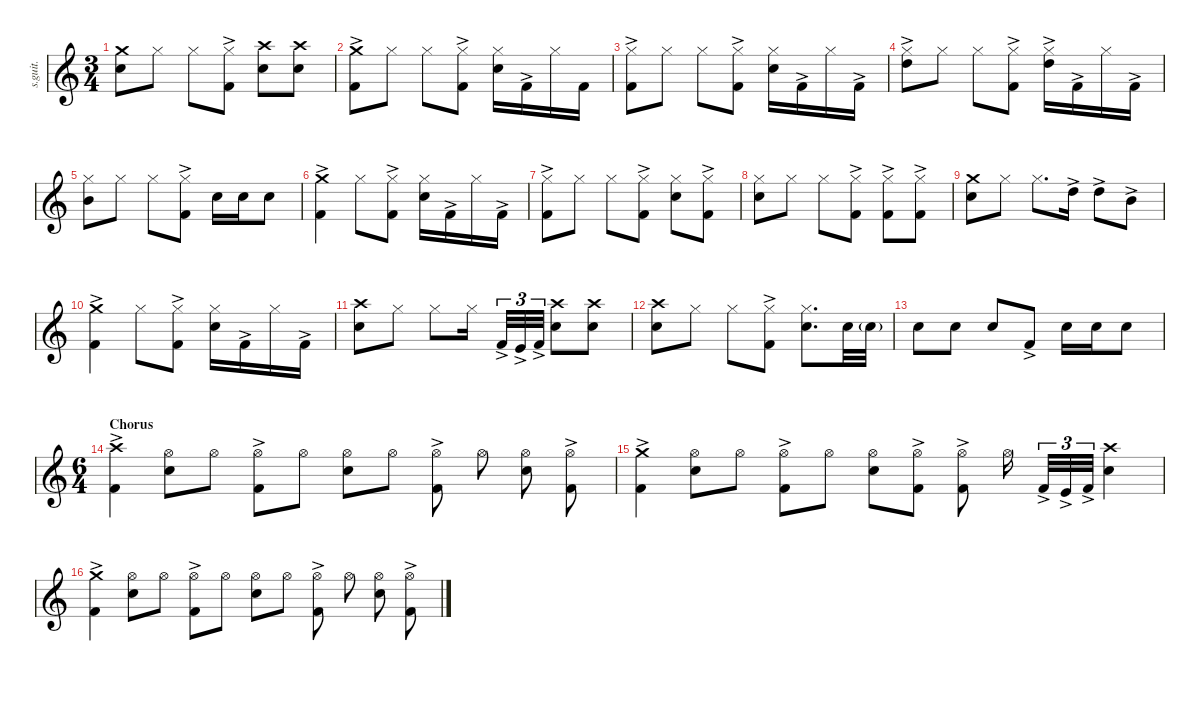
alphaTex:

\defaultSystemsLayout 4
\hideDynamics
\bracketExtendMode nobrackets
\track ("Lars Ulrich - Drums" "s.guit.") {instrument percussion}
\staff {score}
\articulation defaults
\ts (3 4)
\tempo (103 hide)
\clef g2
\ks c
("Crash medium (hit)" "Snare (hit) 2").8{lyrics (0 "") lyrics (1 "") lyrics (2 "") lyrics (3 "") lyrics (4 "") dy f} "Hi-Hat (closed)".8{lyrics (0 "") lyrics (1 "") lyrics (2 "") lyrics (3 "") lyrics (4 "")} "Hi-Hat (closed)".8{lyrics (0 "") lyrics (1 "") lyrics (2 "") lyrics (3 "") lyrics (4 "")} ("Hi-Hat (closed)" "Kick (hit) 2"{ac}).8{lyrics (0 "") lyrics (1 "") lyrics (2 "") lyrics (3 "") lyrics (4 "")} ("Crash high (hit)" "Snare (hit) 2").8{lyrics (0 "") lyrics (1 "") lyrics (2 "") lyrics (3 "") lyrics (4 "")} ("Snare (hit) 2" "Crash high (hit)").8{lyrics (0 "") lyrics (1 "") lyrics (2 "") lyrics (3 "") lyrics (4 "")} |
("Kick (hit) 2"{ac} "Crash medium (hit)").8{lyrics (0 "") lyrics (1 "") lyrics (2 "") lyrics (3 "") lyrics (4 "")} "Hi-Hat (closed)".8{lyrics (0 "") lyrics (1 "") lyrics (2 "") lyrics (3 "") lyrics (4 "")} "Hi-Hat (closed)".8{lyrics (0 "") lyrics (1 "") lyrics (2 "") lyrics (3 "") lyrics (4 "")} ("Hi-Hat (closed)" "Kick (hit) 2"{ac}).8{lyrics (0 "") lyrics (1 "") lyrics (2 "") lyrics (3 "") lyrics (4 "")} ("Hi-Hat (closed)" "Snare (hit) 2").16{lyrics (0 "") lyrics (1 "") lyrics (2 "") lyrics (3 "") lyrics (4 "")} "Kick (hit) 2"{ac}.16{lyrics (0 "") lyrics (1 "") lyrics (2 "") lyrics (3 "") lyrics (4 "") dy mp} "Hi-Hat (closed)".16{lyrics (0 "") lyrics (1 "") lyrics (2 "") lyrics (3 "") lyrics (4 "") dy f} "Kick (hit) 2".16{lyrics (0 "") lyrics (1 "") lyrics (2 "") lyrics (3 "") lyrics (4 "")} |
("Hi-Hat (closed)" "Kick (hit) 2"{ac}).8{lyrics (0 "") lyrics (1 "") lyrics (2 "") lyrics (3 "") lyrics (4 "")} "Hi-Hat (closed)".8{lyrics (0 "") lyrics (1 "") lyrics (2 "") lyrics (3 "") lyrics (4 "")} "Hi-Hat (closed)".8{lyrics (0 "") lyrics (1 "") lyrics (2 "") lyrics (3 "") lyrics (4 "")} ("Hi-Hat (closed)" "Kick (hit) 2"{ac}).8{lyrics (0 "") lyrics (1 "") lyrics (2 "") lyrics (3 "") lyrics (4 "")} ("Hi-Hat (closed)" "Snare (hit) 2").16{lyrics (0 "") lyrics (1 "") lyrics (2 "") lyrics (3 "") lyrics (4 "")} "Kick (hit) 2"{ac}.16{lyrics (0 "") lyrics (1 "") lyrics (2 "") lyrics (3 "") lyrics (4 "") dy mp} "Hi-Hat (closed)".16{lyrics (0 "") lyrics (1 "") lyrics (2 "") lyrics (3 "") lyrics (4 "") dy f} "Kick (hit) 2"{ac}.16{lyrics (0 "") lyrics (1 "") lyrics (2 "") lyrics (3 "") lyrics (4 "") dy mp} |
("High Tom (hit)"{ac} "Hi-Hat (closed)").8{lyrics (0 "") lyrics (1 "") lyrics (2 "") lyrics (3 "") lyrics (4 "") dy f} "Hi-Hat (closed)".8{lyrics (0 "") lyrics (1 "") lyrics (2 "") lyrics (3 "") lyrics (4 "")} "Hi-Hat (closed)".8{lyrics (0 "") lyrics (1 "") lyrics (2 "") lyrics (3 "") lyrics (4 "")} ("Hi-Hat (closed)" "Kick (hit) 2"{ac}).8{lyrics (0 "") lyrics (1 "") lyrics (2 "") lyrics (3 "") lyrics (4 "")} ("High Tom (hit)"{ac} "Hi-Hat (closed)").16{lyrics (0 "") lyrics (1 "") lyrics (2 "") lyrics (3 "") lyrics (4 "")} "Kick (hit) 2"{ac}.16{lyrics (0 "") lyrics (1 "") lyrics (2 "") lyrics (3 "") lyrics (4 "") dy mp} "Hi-Hat (closed)".16{lyrics (0 "") lyrics (1 "") lyrics (2 "") lyrics (3 "") lyrics (4 "") dy f} "Kick (hit) 2"{ac}.16{lyrics (0 "") lyrics (1 "") lyrics (2 "") lyrics (3 "") lyrics (4 "") dy mp} |
("Hi-Hat (closed)" "Mid Tom (hit)").8{lyrics (0 "") lyrics (1 "") lyrics (2 "") lyrics (3 "") lyrics (4 "") dy f} "Hi-Hat (closed)".8{lyrics (0 "") lyrics (1 "") lyrics (2 "") lyrics (3 "") lyrics (4 "")} "Hi-Hat (closed)".8{lyrics (0 "") lyrics (1 "") lyrics (2 "") lyrics (3 "") lyrics (4 "")} ("Hi-Hat (closed)" "Kick (hit) 2"{ac}).8{lyrics (0 "") lyrics (1 "") lyrics (2 "") lyrics (3 "") lyrics (4 "")} "Snare (hit) 2".16{lyrics (0 "") lyrics (1 "") lyrics (2 "") lyrics (3 "") lyrics (4 "")} "Snare (hit) 2".16{lyrics (0 "") lyrics (1 "") lyrics (2 "") lyrics (3 "") lyrics (4 "")} "Snare (hit) 2".8{lyrics (0 "") lyrics (1 "") lyrics (2 "") lyrics (3 "") lyrics (4 "")} |
("Crash medium (hit)" "Kick (hit) 2"{ac}).4{lyrics (0 "") lyrics (1 "") lyrics (2 "") lyrics (3 "") lyrics (4 "")} "Hi-Hat (closed)".8{lyrics (0 "") lyrics (1 "") lyrics (2 "") lyrics (3 "") lyrics (4 "")} ("Hi-Hat (closed)" "Kick (hit) 2"{ac}).8{lyrics (0 "") lyrics (1 "") lyrics (2 "") lyrics (3 "") lyrics (4 "")} ("Hi-Hat (closed)" "Snare (hit) 2").16{lyrics (0 "") lyrics (1 "") lyrics (2 "") lyrics (3 "") lyrics (4 "")} "Kick (hit) 2"{ac}.16{lyrics (0 "") lyrics (1 "") lyrics (2 "") lyrics (3 "") lyrics (4 "") dy mp} "Hi-Hat (closed)".16{lyrics (0 "") lyrics (1 "") lyrics (2 "") lyrics (3 "") lyrics (4 "") dy f} "Kick (hit) 2"{ac}.16{lyrics (0 "") lyrics (1 "") lyrics (2 "") lyrics (3 "") lyrics (4 "") dy mp} |
("Hi-Hat (closed)" "Kick (hit) 2"{ac}).8{lyrics (0 "") lyrics (1 "") lyrics (2 "") lyrics (3 "") lyrics (4 "") dy f} "Hi-Hat (closed)".8{lyrics (0 "") lyrics (1 "") lyrics (2 "") lyrics (3 "") lyrics (4 "")} "Hi-Hat (closed)".8{lyrics (0 "") lyrics (1 "") lyrics (2 "") lyrics (3 "") lyrics (4 "")} ("Hi-Hat (closed)" "Kick (hit) 2"{ac}).8{lyrics (0 "") lyrics (1 "") lyrics (2 "") lyrics (3 "") lyrics (4 "")} ("Hi-Hat (closed)" "Snare (hit) 2").8{lyrics (0 "") lyrics (1 "") lyrics (2 "") lyrics (3 "") lyrics (4 "")} ("Hi-Hat (closed)" "Kick (hit) 2"{ac}).8{lyrics (0 "") lyrics (1 "") lyrics (2 "") lyrics (3 "") lyrics (4 "")} |
("Hi-Hat (closed)" "Snare (hit) 2").8{lyrics (0 "") lyrics (1 "") lyrics (2 "") lyrics (3 "") lyrics (4 "")} "Hi-Hat (closed)".8{lyrics (0 "") lyrics (1 "") lyrics (2 "") lyrics (3 "") lyrics (4 "")} "Hi-Hat (closed)".8{lyrics (0 "") lyrics (1 "") lyrics (2 "") lyrics (3 "") lyrics (4 "")} ("Hi-Hat (closed)" "Kick (hit) 2"{ac}).8{lyrics (0 "") lyrics (1 "") lyrics (2 "") lyrics (3 "") lyrics (4 "")} ("Hi-Hat (closed)" "Kick (hit) 2"{ac}).8{lyrics (0 "") lyrics (1 "") lyrics (2 "") lyrics (3 "") lyrics (4 "")} ("Hi-Hat (closed)" "Kick (hit) 2"{ac}).8{lyrics (0 "") lyrics (1 "") lyrics (2 "") lyrics (3 "") lyrics (4 "")} |
("Crash medium (hit)" "Snare (hit) 2").8{lyrics (0 "") lyrics (1 "") lyrics (2 "") lyrics (3 "") lyrics (4 "")} "Hi-Hat (closed)".8{lyrics (0 "") lyrics (1 "") lyrics (2 "") lyrics (3 "") lyrics (4 "")} "Hi-Hat (closed)".8{d lyrics (0 "") lyrics (1 "") lyrics (2 "") lyrics (3 "") lyrics (4 "")} "High Tom (hit)"{ac}.16{lyrics (0 "") lyrics (1 "") lyrics (2 "") lyrics (3 "") lyrics (4 "") dy mp} "High Tom (hit)"{ac}.8{lyrics (0 "") lyrics (1 "") lyrics (2 "") lyrics (3 "") lyrics (4 "")} "Mid Tom (hit)"{ac}.8{lyrics (0 "") lyrics (1 "") lyrics (2 "") lyrics (3 "") lyrics (4 "")} |
("Crash medium (hit)" "Kick (hit) 2"{ac}).4{lyrics (0 "") lyrics (1 "") lyrics (2 "") lyrics (3 "") lyrics (4 "") dy f} "Hi-Hat (closed)".8{lyrics (0 "") lyrics (1 "") lyrics (2 "") lyrics (3 "") lyrics (4 "")} ("Hi-Hat (closed)" "Kick (hit) 2"{ac}).8{lyrics (0 "") lyrics (1 "") lyrics (2 "") lyrics (3 "") lyrics (4 "")} ("Hi-Hat (closed)" "Snare (hit) 2").16{lyrics (0 "") lyrics (1 "") lyrics (2 "") lyrics (3 "") lyrics (4 "")} "Kick (hit) 2"{ac}.16{lyrics (0 "") lyrics (1 "") lyrics (2 "") lyrics (3 "") lyrics (4 "") dy mp} "Hi-Hat (closed)".16{lyrics (0 "") lyrics (1 "") lyrics (2 "") lyrics (3 "") lyrics (4 "") dy f} "Kick (hit) 2"{ac}.16{lyrics (0 "") lyrics (1 "") lyrics (2 "") lyrics (3 "") lyrics (4 "") dy mp} |
("Crash high (hit)" "Snare (hit) 2").8{lyrics (0 "") lyrics (1 "") lyrics (2 "") lyrics (3 "") lyrics (4 "") dy f} "Hi-Hat (closed)".8{lyrics (0 "") lyrics (1 "") lyrics (2 "") lyrics (3 "") lyrics (4 "")} "Hi-Hat (closed)".8{lyrics (0 "") lyrics (1 "") lyrics (2 "") lyrics (3 "") lyrics (4 "")} "Hi-Hat (closed)".16{lyrics (0 "") lyrics (1 "") lyrics (2 "") lyrics (3 "") lyrics (4 "")} "Kick (hit) 2"{ac}.32{tu (3 2) lyrics (0 "") lyrics (1 "") lyrics (2 "") lyrics (3 "") lyrics (4 "") dy mp} "Kick (hit)"{ac}.32{tu (3 2) lyrics (0 "") lyrics (1 "") lyrics (2 "") lyrics (3 "") lyrics (4 "") dy mf} "Kick (hit) 2"{ac}.32{tu (3 2) lyrics (0 "") lyrics (1 "") lyrics (2 "") lyrics (3 "") lyrics (4 "") dy mp} ("Crash high (hit)" "Snare (hit) 2").8{lyrics (0 "") lyrics (1 "") lyrics (2 "") lyrics (3 "") lyrics (4 "") dy f} ("Snare (hit) 2" "Crash high (hit)").8{lyrics (0 "") lyrics (1 "") lyrics (2 "") lyrics (3 "") lyrics (4 "")} |
("Crash high (hit)" "Snare (hit) 2").8{lyrics (0 "") lyrics (1 "") lyrics (2 "") lyrics (3 "") lyrics (4 "")} "Hi-Hat (closed)".8{lyrics (0 "") lyrics (1 "") lyrics (2 "") lyrics (3 "") lyrics (4 "")} "Hi-Hat (closed)".8{lyrics (0 "") lyrics (1 "") lyrics (2 "") lyrics (3 "") lyrics (4 "")} ("Hi-Hat (closed)" "Kick (hit) 2"{ac}).8{lyrics (0 "") lyrics (1 "") lyrics (2 "") lyrics (3 "") lyrics (4 "")} ("Hi-Hat (closed)" "Snare (hit) 2").8{d lyrics (0 "") lyrics (1 "") lyrics (2 "") lyrics (3 "") lyrics (4 "")} "Snare (hit) 2".32{lyrics (0 "") lyrics (1 "") lyrics (2 "") lyrics (3 "") lyrics (4 "")} "Snare (hit) 2"{g}.32{lyrics (0 "") lyrics (1 "") lyrics (2 "") lyrics (3 "") lyrics (4 "") dy ff} |
"Snare (hit) 2".8{lyrics (0 "") lyrics (1 "") lyrics (2 "") lyrics (3 "") lyrics (4 "") dy f} "Snare (hit) 2".8{lyrics (0 "") lyrics (1 "") lyrics (2 "") lyrics (3 "") lyrics (4 "")} "Snare (hit) 2".8{lyrics (0 "") lyrics (1 "") lyrics (2 "") lyrics (3 "") lyrics (4 "")} "Kick (hit) 2"{ac}.8{lyrics (0 "") lyrics (1 "") lyrics (2 "") lyrics (3 "") lyrics (4 "") dy mp} "Snare (hit) 2".16{lyrics (0 "") lyrics (1 "") lyrics (2 "") lyrics (3 "") lyrics (4 "") dy f} "Snare (hit) 2".16{lyrics (0 "") lyrics (1 "") lyrics (2 "") lyrics (3 "") lyrics (4 "")} "Snare (hit) 2".8{lyrics (0 "") lyrics (1 "") lyrics (2 "") lyrics (3 "") lyrics (4 "")} |
\ts (6 4)
\beaming (8 2 2 2 2)
\section ("" "Chorus")
("Crash high (hit)" "Kick (hit) 2"{ac}).4{lyrics (0 "") lyrics (1 "") lyrics (2 "") lyrics (3 "") lyrics (4 "")} ("Hi-Hat (open)" "Snare (hit) 2").8{lyrics (0 "") lyrics (1 "") lyrics (2 "") lyrics (3 "") lyrics (4 "")} "Hi-Hat (open)".8{lyrics (0 "") lyrics (1 "") lyrics (2 "") lyrics (3 "") lyrics (4 "")} ("Hi-Hat (open)" "Kick (hit) 2"{ac}).8{lyrics (0 "") lyrics (1 "") lyrics (2 "") lyrics (3 "") lyrics (4 "")} "Hi-Hat (open)".8{lyrics (0 "") lyrics (1 "") lyrics (2 "") lyrics (3 "") lyrics (4 "")} ("Hi-Hat (open)" "Snare (hit) 2").8{lyrics (0 "") lyrics (1 "") lyrics (2 "") lyrics (3 "") lyrics (4 "")} "Hi-Hat (open)".8{lyrics (0 "") lyrics (1 "") lyrics (2 "") lyrics (3 "") lyrics (4 "")} ("Hi-Hat (open)" "Kick (hit) 2"{ac}).8{lyrics (0 "") lyrics (1 "") lyrics (2 "") lyrics (3 "") lyrics (4 "")} "Hi-Hat (open)".8{lyrics (0 "") lyrics (1 "") lyrics (2 "") lyrics (3 "") lyrics (4 "")} ("Hi-Hat (open)" "Snare (hit) 2").8{lyrics (0 "") lyrics (1 "") lyrics (2 "") lyrics (3 "") lyrics (4 "")} ("Hi-Hat (open)" "Kick (hit) 2"{ac}).8{lyrics (0 "") lyrics (1 "") lyrics (2 "") lyrics (3 "") lyrics (4 "")} |
("Crash medium (hit)" "Kick (hit) 2"{ac}).4{lyrics (0 "") lyrics (1 "") lyrics (2 "") lyrics (3 "") lyrics (4 "")} ("Hi-Hat (open)" "Snare (hit) 2").8{lyrics (0 "") lyrics (1 "") lyrics (2 "") lyrics (3 "") lyrics (4 "")} "Hi-Hat (open)".8{lyrics (0 "") lyrics (1 "") lyrics (2 "") lyrics (3 "") lyrics (4 "")} ("Hi-Hat (open)" "Kick (hit) 2"{ac}).8{lyrics (0 "") lyrics (1 "") lyrics (2 "") lyrics (3 "") lyrics (4 "")} "Hi-Hat (open)".8{lyrics (0 "") lyrics (1 "") lyrics (2 "") lyrics (3 "") lyrics (4 "")} ("Hi-Hat (open)" "Snare (hit) 2").8{lyrics (0 "") lyrics (1 "") lyrics (2 "") lyrics (3 "") lyrics (4 "")} ("Hi-Hat (open)" "Kick (hit) 2"{ac}).8{lyrics (0 "") lyrics (1 "") lyrics (2 "") lyrics (3 "") lyrics (4 "")} ("Hi-Hat (open)" "Kick (hit) 2"{ac}).8{lyrics (0 "") lyrics (1 "") lyrics (2 "") lyrics (3 "") lyrics (4 "")} "Hi-Hat (open)".16{lyrics (0 "") lyrics (1 "") lyrics (2 "") lyrics (3 "") lyrics (4 "")} "Kick (hit) 2"{ac}.32{tu (3 2) lyrics (0 "") lyrics (1 "") lyrics (2 "") lyrics (3 "") lyrics (4 "") dy mp} "Kick (hit)"{ac}.32{tu (3 2) lyrics (0 "") lyrics (1 "") lyrics (2 "") lyrics (3 "") lyrics (4 "") dy mf} "Kick (hit) 2"{ac}.32{tu (3 2) lyrics (0 "") lyrics (1 "") lyrics (2 "") lyrics (3 "") lyrics (4 "") dy mp} ("Snare (hit) 2" "Crash high (hit)").4{lyrics (0 "") lyrics (1 "") lyrics (2 "") lyrics (3 "") lyrics (4 "") dy f} |
("Kick (hit) 2"{ac} "Crash medium (hit)").4{lyrics (0 "") lyrics (1 "") lyrics (2 "") lyrics (3 "") lyrics (4 "")} ("Hi-Hat (open)" "Snare (hit) 2").8{lyrics (0 "") lyrics (1 "") lyrics (2 "") lyrics (3 "") lyrics (4 "")} "Hi-Hat (open)".8{lyrics (0 "") lyrics (1 "") lyrics (2 "") lyrics (3 "") lyrics (4 "")} ("Hi-Hat (open)" "Kick (hit) 2"{ac}).8{lyrics (0 "") lyrics (1 "") lyrics (2 "") lyrics (3 "") lyrics (4 "")} "Hi-Hat (open)".8{lyrics (0 "") lyrics (1 "") lyrics (2 "") lyrics (3 "") lyrics (4 "")} ("Hi-Hat (open)" "Snare (hit) 2").8{lyrics (0 "") lyrics (1 "") lyrics (2 "") lyrics (3 "") lyrics (4 "")} "Hi-Hat (open)".8{lyrics (0 "") lyrics (1 "") lyrics (2 "") lyrics (3 "") lyrics (4 "")} ("Hi-Hat (open)" "Kick (hit) 2"{ac}).8{lyrics (0 "") lyrics (1 "") lyrics (2 "") lyrics (3 "") lyrics (4 "")} "Hi-Hat (open)".8{lyrics (0 "") lyrics (1 "") lyrics (2 "") lyrics (3 "") lyrics (4 "")} ("Hi-Hat (open)" "Snare (hit) 2").8{lyrics (0 "") lyrics (1 "") lyrics (2 "") lyrics (3 "") lyrics (4 "")} ("Hi-Hat (open)" "Kick (hit) 2"{ac}).8{lyrics (0 "") lyrics (1 "") lyrics (2 "") lyrics (3 "") lyrics (4 "")}
